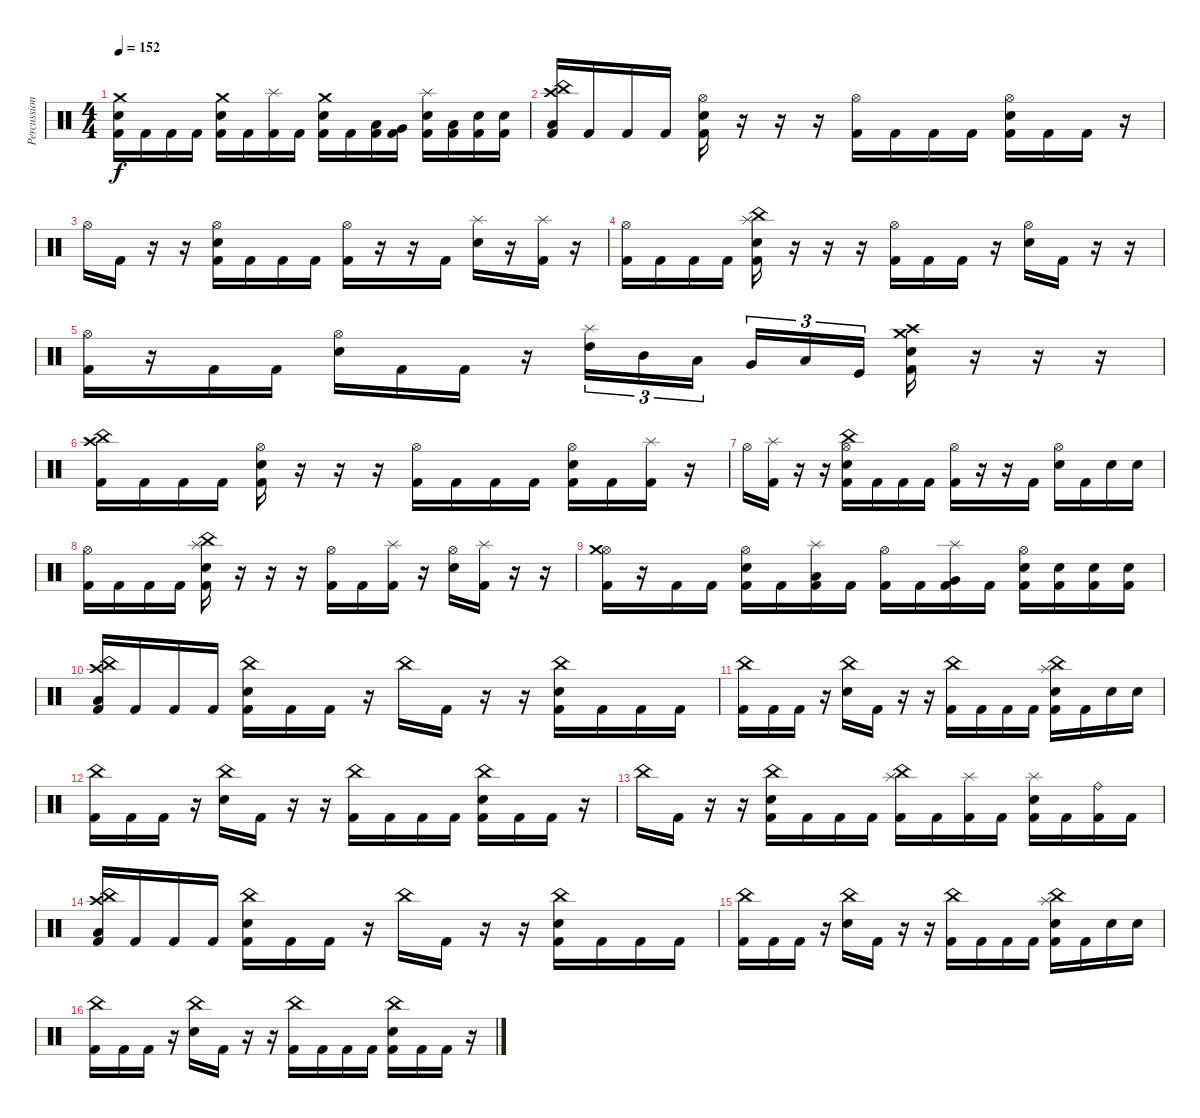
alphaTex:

\track ("Percussion" "Percussion") {instrument percussion}
\staff {score}
\articulation defaults
\ts (4 4)
\tempo 152
\clef neutral
\ks c
("Crash medium (hit)" "Electric Snare (hit)" "Kick (hit) 2").16{dy f} "Kick (hit) 2".16 "Kick (hit) 2".16 "Kick (hit) 2".16 ("Crash medium (hit)" "Electric Snare (hit)" "Kick (hit) 2").16 "Kick (hit) 2".16 ("Splash (hit)" "Kick (hit) 2").16 "Kick (hit) 2".16 ("Crash medium (hit)" "Electric Snare (hit)" "Kick (hit) 2").16 "Kick (hit) 2".16 ("Low Tom (hit)" "Kick (hit) 2").16 ("Very Low Tom (hit)" "Kick (hit) 2").16 ("Splash (hit)" "Electric Snare (hit)" "Kick (hit) 2").16 ("Low Tom (hit)" "Kick (hit) 2").16 ("Electric Snare (hit)" "Kick (hit) 2").16 ("Electric Snare (hit)" "Kick (hit) 2").16 |
("China (hit)" "Crash high (hit)" "Low Floor Tom (hit)" "Kick (hit) 2").16 "Kick (hit) 2".16 "Kick (hit) 2".16 "Kick (hit) 2".16 ("Hi-Hat (open)" "Electric Snare (hit)" "Kick (hit) 2").16 r.16 r.16 r.16 ("Hi-Hat (open)" "Kick (hit) 2").16 "Kick (hit) 2".16 "Kick (hit) 2".16 "Kick (hit) 2".16 ("Hi-Hat (open)" "Electric Snare (hit)" "Kick (hit) 2").16 "Kick (hit) 2".16 "Kick (hit) 2".16 r.16 |
"Hi-Hat (open)".16 "Kick (hit) 2".16 r.16 r.16 ("Hi-Hat (open)" "Electric Snare (hit)" "Kick (hit) 2").16 "Kick (hit) 2".16 "Kick (hit) 2".16 "Kick (hit) 2".16 ("Hi-Hat (open)" "Kick (hit) 2").16 r.16 r.16 "Kick (hit) 2".16 ("Splash (hit)" "Electric Snare (hit)").16 r.16 ("Splash (hit)" "Kick (hit) 2").16 r.16 |
("Hi-Hat (open)" "Kick (hit) 2").16 "Kick (hit) 2".16 "Kick (hit) 2".16 "Kick (hit) 2".16 ("China (hit)" "Splash (hit)" "Electric Snare (hit)" "Kick (hit) 2").16 r.16 r.16 r.16 ("Hi-Hat (open)" "Kick (hit) 2").16 "Kick (hit) 2".16 "Kick (hit) 2".16 r.16 ("Hi-Hat (open)" "Electric Snare (hit)").16 "Kick (hit) 2".16 r.16 r.16 |
("Hi-Hat (open)" "Kick (hit) 2").16 r.16 "Kick (hit) 2".16 "Kick (hit) 2".16 ("Hi-Hat (open)" "Electric Snare (hit)").16 "Kick (hit) 2".16 "Kick (hit) 2".16 r.16 ("Splash (hit)" "High Tom (hit)").16{tu (3 2)} "Mid Tom (hit)".16{tu (3 2)} "Low Tom (hit)".16{tu (3 2)} "Very Low Tom (hit)".16{tu (3 2)} "Low Floor Tom (hit)".16{tu (3 2)} "Kick (hit)".16{tu (3 2)} ("Crash medium (hit)" "Crash high (hit)" "Electric Snare (hit)" "Kick (hit) 2").16 r.16 r.16 r.16 |
("China (hit)" "Crash high (hit)" "Kick (hit) 2").16 "Kick (hit) 2".16 "Kick (hit) 2".16 "Kick (hit) 2".16 ("Hi-Hat (open)" "Electric Snare (hit)" "Kick (hit) 2").16 r.16 r.16 r.16 ("Hi-Hat (open)" "Kick (hit) 2").16 "Kick (hit) 2".16 "Kick (hit) 2".16 "Kick (hit) 2".16 ("Hi-Hat (open)" "Electric Snare (hit)" "Kick (hit) 2").16 "Kick (hit) 2".16 ("Splash (hit)" "Kick (hit) 2").16 r.16 |
"Hi-Hat (open)".16 ("Splash (hit)" "Kick (hit) 2").16 r.16 r.16 ("Hi-Hat (open)" "China (hit)" "Electric Snare (hit)" "Kick (hit) 2").16 "Kick (hit) 2".16 "Kick (hit) 2".16 "Kick (hit) 2".16 ("Hi-Hat (open)" "Kick (hit) 2").16 r.16 r.16 "Kick (hit) 2".16 ("Hi-Hat (open)" "Electric Snare (hit)").16 "Kick (hit) 2".16 "Electric Snare (hit)".16 "Electric Snare (hit)".16 |
("Hi-Hat (open)" "Kick (hit) 2").16 "Kick (hit) 2".16 "Kick (hit) 2".16 "Kick (hit) 2".16 ("China (hit)" "Splash (hit)" "Electric Snare (hit)" "Kick (hit) 2").16 r.16 r.16 r.16 ("Hi-Hat (open)" "Kick (hit) 2").16 "Kick (hit) 2".16 ("Splash (hit)" "Kick (hit) 2").16 r.16 ("Hi-Hat (open)" "Electric Snare (hit)").16 ("Splash (hit)" "Kick (hit) 2").16 r.16 r.16 |
("Hi-Hat (open)" "Crash medium (hit)" "Kick (hit) 2").16 r.16 "Kick (hit) 2".16 "Kick (hit) 2".16 ("Hi-Hat (open)" "Electric Snare (hit)" "Kick (hit) 2").16 "Kick (hit) 2".16 ("Splash (hit)" "Low Tom (hit)" "Kick (hit) 2").16 "Kick (hit) 2".16 ("Hi-Hat (open)" "Kick (hit) 2").16 "Kick (hit) 2".16 ("Splash (hit)" "Very Low Tom (hit)" "Kick (hit) 2").16 "Kick (hit) 2".16 ("Hi-Hat (open)" "Electric Snare (hit)" "Kick (hit) 2").16 ("Electric Snare (hit)" "Kick (hit) 2").16 ("Electric Snare (hit)" "Kick (hit) 2").16 ("Electric Snare (hit)" "Kick (hit) 2").16 |
("Crash high (hit)" "China (hit)" "Low Floor Tom (hit)" "Kick (hit) 2").16 "Kick (hit) 2".16 "Kick (hit) 2".16 "Kick (hit) 2".16 ("China (hit)" "Electric Snare (hit)" "Kick (hit) 2").16 "Kick (hit) 2".16 "Kick (hit) 2".16 r.16 "China (hit)".16 "Kick (hit) 2".16 r.16 r.16 ("China (hit)" "Electric Snare (hit)" "Kick (hit) 2").16 "Kick (hit) 2".16 "Kick (hit) 2".16 "Kick (hit) 2".16 |
("China (hit)" "Kick (hit) 2").16 "Kick (hit) 2".16 "Kick (hit) 2".16 r.16 ("China (hit)" "Electric Snare (hit)").16 "Kick (hit) 2".16 r.16 r.16 ("China (hit)" "Kick (hit) 2").16 "Kick (hit) 2".16 "Kick (hit) 2".16 "Kick (hit) 2".16 ("China (hit)" "Splash (hit)" "Electric Snare (hit)" "Kick (hit) 2").16 "Kick (hit) 2".16 "Electric Snare (hit)".16 "Electric Snare (hit)".16 |
("China (hit)" "Kick (hit) 2").16 "Kick (hit) 2".16 "Kick (hit) 2".16 r.16 ("China (hit)" "Electric Snare (hit)").16 "Kick (hit) 2".16 r.16 r.16 ("China (hit)" "Kick (hit) 2").16 "Kick (hit) 2".16 "Kick (hit) 2".16 "Kick (hit) 2".16 ("China (hit)" "Electric Snare (hit)" "Kick (hit) 2").16 "Kick (hit) 2".16 "Kick (hit) 2".16 r.16 |
"China (hit)".16 "Kick (hit) 2".16 r.16 r.16 ("China (hit)" "Electric Snare (hit)" "Kick (hit) 2").16 "Kick (hit) 2".16 "Kick (hit) 2".16 "Kick (hit) 2".16 ("China (hit)" "Splash (hit)" "Kick (hit) 2").16 "Kick (hit) 2".16 ("Splash (hit)" "Kick (hit) 2").16 "Kick (hit) 2".16 ("Splash (hit)" "Electric Snare (hit)" "Kick (hit) 2").16 "Kick (hit) 2".16 ("Ride (bell)" "Kick (hit) 2").16 "Kick (hit) 2".16 |
("Crash high (hit)" "China (hit)" "Low Floor Tom (hit)" "Kick (hit) 2").16 "Kick (hit) 2".16 "Kick (hit) 2".16 "Kick (hit) 2".16 ("China (hit)" "Electric Snare (hit)" "Kick (hit) 2").16 "Kick (hit) 2".16 "Kick (hit) 2".16 r.16 "China (hit)".16 "Kick (hit) 2".16 r.16 r.16 ("China (hit)" "Electric Snare (hit)" "Kick (hit) 2").16 "Kick (hit) 2".16 "Kick (hit) 2".16 "Kick (hit) 2".16 |
("China (hit)" "Kick (hit) 2").16 "Kick (hit) 2".16 "Kick (hit) 2".16 r.16 ("China (hit)" "Electric Snare (hit)").16 "Kick (hit) 2".16 r.16 r.16 ("China (hit)" "Kick (hit) 2").16 "Kick (hit) 2".16 "Kick (hit) 2".16 "Kick (hit) 2".16 ("China (hit)" "Splash (hit)" "Electric Snare (hit)" "Kick (hit) 2").16 "Kick (hit) 2".16 "Electric Snare (hit)".16 "Electric Snare (hit)".16 |
("China (hit)" "Kick (hit) 2").16 "Kick (hit) 2".16 "Kick (hit) 2".16 r.16 ("China (hit)" "Electric Snare (hit)").16 "Kick (hit) 2".16 r.16 r.16 ("China (hit)" "Kick (hit) 2").16 "Kick (hit) 2".16 "Kick (hit) 2".16 "Kick (hit) 2".16 ("China (hit)" "Electric Snare (hit)" "Kick (hit) 2").16 "Kick (hit) 2".16 "Kick (hit) 2".16 r.16
